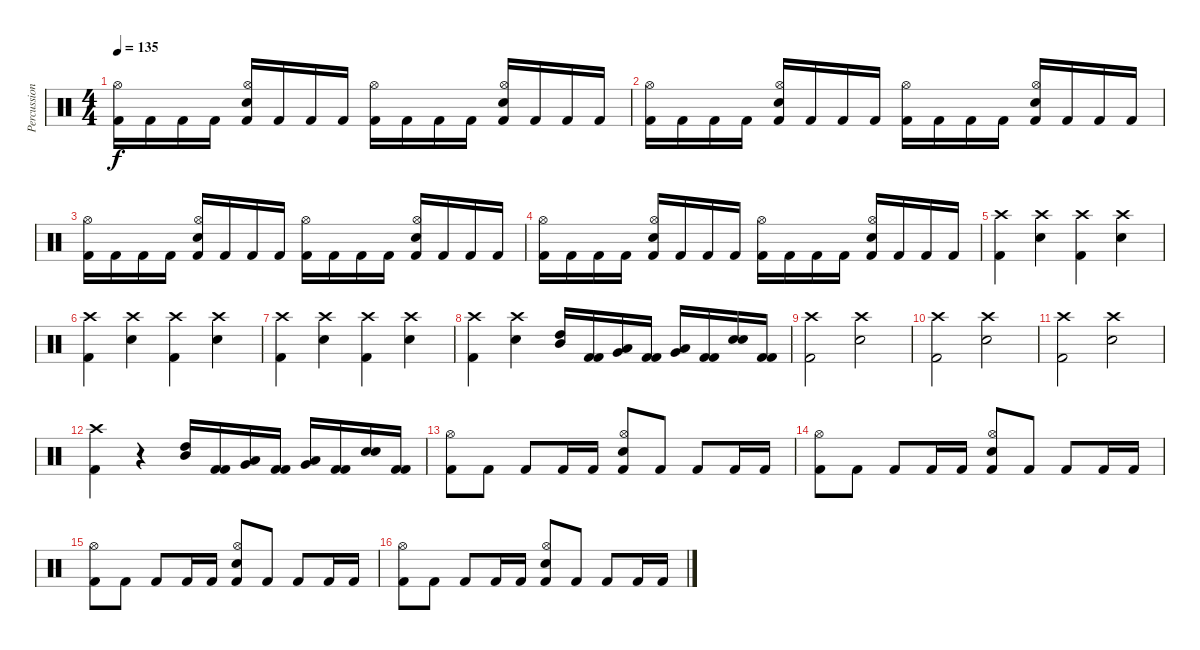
\track ("Percussion" "Percussion") {instrument percussion}
\staff {score}
\articulation defaults
\ts (4 4)
\tempo 135
\clef neutral
\ks c
("Kick (hit) 2" "Hi-Hat (open)").16{dy f} "Kick (hit) 2".16 "Kick (hit) 2".16 "Kick (hit) 2".16 ("Kick (hit) 2" "Hi-Hat (open)" "Electric Snare (hit)").16 "Kick (hit) 2".16 "Kick (hit) 2".16 "Kick (hit) 2".16 ("Kick (hit) 2" "Hi-Hat (open)").16 "Kick (hit) 2".16 "Kick (hit) 2".16 "Kick (hit) 2".16 ("Kick (hit) 2" "Hi-Hat (open)" "Electric Snare (hit)").16 "Kick (hit) 2".16 "Kick (hit) 2".16 "Kick (hit) 2".16 |
("Kick (hit) 2" "Hi-Hat (open)").16 "Kick (hit) 2".16 "Kick (hit) 2".16 "Kick (hit) 2".16 ("Kick (hit) 2" "Hi-Hat (open)" "Electric Snare (hit)").16 "Kick (hit) 2".16 "Kick (hit) 2".16 "Kick (hit) 2".16 ("Kick (hit) 2" "Hi-Hat (open)").16 "Kick (hit) 2".16 "Kick (hit) 2".16 "Kick (hit) 2".16 ("Kick (hit) 2" "Hi-Hat (open)" "Electric Snare (hit)").16 "Kick (hit) 2".16 "Kick (hit) 2".16 "Kick (hit) 2".16 |
("Kick (hit) 2" "Hi-Hat (open)").16 "Kick (hit) 2".16 "Kick (hit) 2".16 "Kick (hit) 2".16 ("Kick (hit) 2" "Hi-Hat (open)" "Electric Snare (hit)").16 "Kick (hit) 2".16 "Kick (hit) 2".16 "Kick (hit) 2".16 ("Kick (hit) 2" "Hi-Hat (open)").16 "Kick (hit) 2".16 "Kick (hit) 2".16 "Kick (hit) 2".16 ("Kick (hit) 2" "Hi-Hat (open)" "Electric Snare (hit)").16 "Kick (hit) 2".16 "Kick (hit) 2".16 "Kick (hit) 2".16 |
("Kick (hit) 2" "Hi-Hat (open)").16 "Kick (hit) 2".16 "Kick (hit) 2".16 "Kick (hit) 2".16 ("Kick (hit) 2" "Hi-Hat (open)" "Electric Snare (hit)").16 "Kick (hit) 2".16 "Kick (hit) 2".16 "Kick (hit) 2".16 ("Kick (hit) 2" "Hi-Hat (open)").16 "Kick (hit) 2".16 "Kick (hit) 2".16 "Kick (hit) 2".16 ("Kick (hit) 2" "Hi-Hat (open)" "Electric Snare (hit)").16 "Kick (hit) 2".16 "Kick (hit) 2".16 "Kick (hit) 2".16 |
("Crash high (hit)" "Kick (hit) 2").4 ("Crash high (hit)" "Electric Snare (hit)").4 ("Crash high (hit)" "Kick (hit) 2").4 ("Crash high (hit)" "Electric Snare (hit)").4 |
("Crash high (hit)" "Kick (hit) 2").4 ("Crash high (hit)" "Electric Snare (hit)").4 ("Crash high (hit)" "Kick (hit) 2").4 ("Crash high (hit)" "Electric Snare (hit)").4 |
("Crash high (hit)" "Kick (hit) 2").4 ("Crash high (hit)" "Electric Snare (hit)").4 ("Crash high (hit)" "Kick (hit) 2").4 ("Crash high (hit)" "Electric Snare (hit)").4 |
("Crash high (hit)" "Kick (hit) 2").4 ("Crash high (hit)" "Electric Snare (hit)").4 ("Mid Tom (hit)" "High Tom (hit)").16 ("Kick (hit) 2" "Kick (hit) 2").16 ("Very Low Tom (hit)" "Low Tom (hit)").16 ("Kick (hit) 2" "Kick (hit) 2").16 ("Low Floor Tom (hit)" "Very Low Tom (hit)").16 ("Kick (hit) 2" "Kick (hit) 2").16 ("Electric Snare (hit)" "Electric Snare (hit)").16 ("Kick (hit) 2" "Kick (hit) 2").16 |
("Crash high (hit)" "Kick (hit) 2").2 ("Crash high (hit)" "Electric Snare (hit)").2 |
("Crash high (hit)" "Kick (hit) 2").2 ("Crash high (hit)" "Electric Snare (hit)").2 |
("Crash high (hit)" "Kick (hit) 2").2 ("Crash high (hit)" "Electric Snare (hit)").2 |
("Crash high (hit)" "Kick (hit) 2").4 r.4 ("Mid Tom (hit)" "High Tom (hit)").16 ("Kick (hit) 2" "Kick (hit) 2").16 ("Very Low Tom (hit)" "Low Tom (hit)").16 ("Kick (hit) 2" "Kick (hit) 2").16 ("Low Floor Tom (hit)" "Very Low Tom (hit)").16 ("Kick (hit) 2" "Kick (hit) 2").16 ("Electric Snare (hit)" "Electric Snare (hit)").16 ("Kick (hit) 2" "Kick (hit) 2").16 |
("Kick (hit) 2" "Hi-Hat (open)").8 "Kick (hit) 2".8 "Kick (hit) 2".8 "Kick (hit) 2".16 "Kick (hit) 2".16 ("Kick (hit) 2" "Hi-Hat (open)" "Electric Snare (hit)").8 "Kick (hit) 2".8 "Kick (hit) 2".8 "Kick (hit) 2".16 "Kick (hit) 2".16 |
("Kick (hit) 2" "Hi-Hat (open)").8 "Kick (hit) 2".8 "Kick (hit) 2".8 "Kick (hit) 2".16 "Kick (hit) 2".16 ("Kick (hit) 2" "Hi-Hat (open)" "Electric Snare (hit)").8 "Kick (hit) 2".8 "Kick (hit) 2".8 "Kick (hit) 2".16 "Kick (hit) 2".16 |
("Kick (hit) 2" "Hi-Hat (open)").8 "Kick (hit) 2".8 "Kick (hit) 2".8 "Kick (hit) 2".16 "Kick (hit) 2".16 ("Kick (hit) 2" "Hi-Hat (open)" "Electric Snare (hit)").8 "Kick (hit) 2".8 "Kick (hit) 2".8 "Kick (hit) 2".16 "Kick (hit) 2".16 |
("Kick (hit) 2" "Hi-Hat (open)").8 "Kick (hit) 2".8 "Kick (hit) 2".8 "Kick (hit) 2".16 "Kick (hit) 2".16 ("Kick (hit) 2" "Hi-Hat (open)" "Electric Snare (hit)").8 "Kick (hit) 2".8 "Kick (hit) 2".8 "Kick (hit) 2".16 "Kick (hit) 2".16
